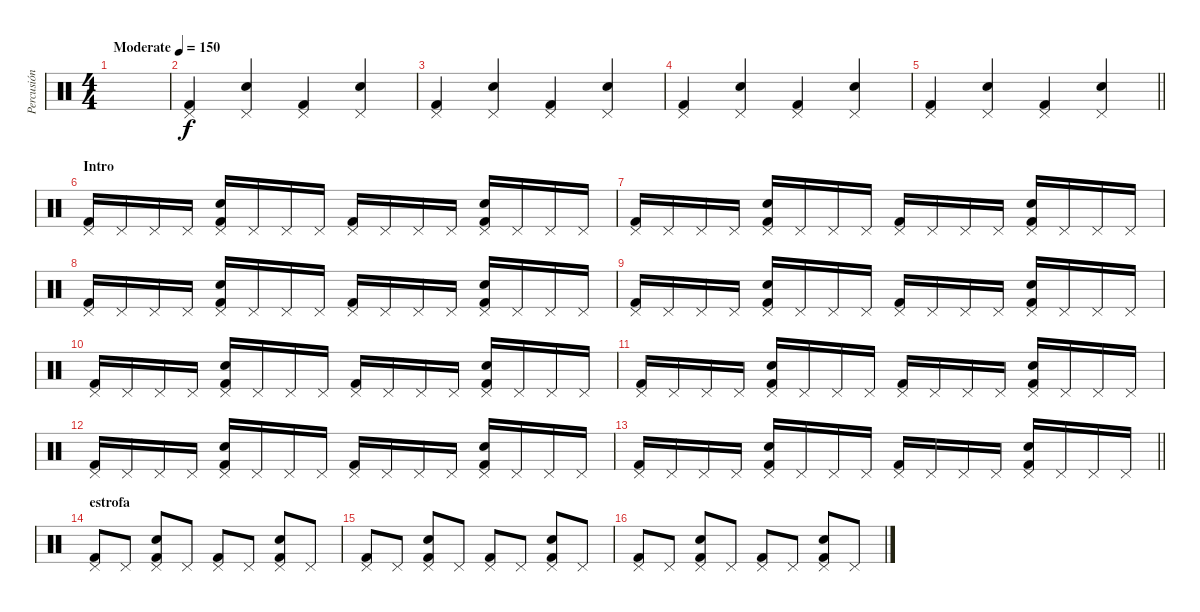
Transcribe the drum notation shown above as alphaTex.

\track ("Percusión" "Percusión") {instrument percussion}
\staff {score}
\articulation defaults
\ts (4 4)
\tempo (150 "Moderate")
\clef neutral
\ks c
|
("Pedal Hi-Hat (hit)" "Kick (hit) 2").4 ("Pedal Hi-Hat (hit)" "Electric Snare (hit)").4 ("Pedal Hi-Hat (hit)" "Kick (hit) 2").4 ("Pedal Hi-Hat (hit)" "Electric Snare (hit)").4 |
("Pedal Hi-Hat (hit)" "Kick (hit) 2").4 ("Pedal Hi-Hat (hit)" "Electric Snare (hit)").4 ("Pedal Hi-Hat (hit)" "Kick (hit) 2").4 ("Pedal Hi-Hat (hit)" "Electric Snare (hit)").4 |
("Pedal Hi-Hat (hit)" "Kick (hit) 2").4 ("Pedal Hi-Hat (hit)" "Electric Snare (hit)").4 ("Pedal Hi-Hat (hit)" "Kick (hit) 2").4 ("Pedal Hi-Hat (hit)" "Electric Snare (hit)").4 |
\barLineRight lightlight
("Pedal Hi-Hat (hit)" "Kick (hit) 2").4 ("Pedal Hi-Hat (hit)" "Electric Snare (hit)").4 ("Pedal Hi-Hat (hit)" "Kick (hit) 2").4 ("Pedal Hi-Hat (hit)" "Electric Snare (hit)").4 |
\section ("" "Intro")
("Pedal Hi-Hat (hit)" "Kick (hit) 2").16 "Pedal Hi-Hat (hit)".16 "Pedal Hi-Hat (hit)".16 "Pedal Hi-Hat (hit)".16 ("Pedal Hi-Hat (hit)" "Electric Snare (hit)" "Kick (hit) 2").16 "Pedal Hi-Hat (hit)".16 "Pedal Hi-Hat (hit)".16 "Pedal Hi-Hat (hit)".16 ("Pedal Hi-Hat (hit)" "Kick (hit) 2").16 "Pedal Hi-Hat (hit)".16 "Pedal Hi-Hat (hit)".16 "Pedal Hi-Hat (hit)".16 ("Pedal Hi-Hat (hit)" "Electric Snare (hit)" "Kick (hit) 2").16 "Pedal Hi-Hat (hit)".16 "Pedal Hi-Hat (hit)".16 "Pedal Hi-Hat (hit)".16 |
("Pedal Hi-Hat (hit)" "Kick (hit) 2").16 "Pedal Hi-Hat (hit)".16 "Pedal Hi-Hat (hit)".16 "Pedal Hi-Hat (hit)".16 ("Pedal Hi-Hat (hit)" "Electric Snare (hit)" "Kick (hit) 2").16 "Pedal Hi-Hat (hit)".16 "Pedal Hi-Hat (hit)".16 "Pedal Hi-Hat (hit)".16 ("Pedal Hi-Hat (hit)" "Kick (hit) 2").16 "Pedal Hi-Hat (hit)".16 "Pedal Hi-Hat (hit)".16 "Pedal Hi-Hat (hit)".16 ("Pedal Hi-Hat (hit)" "Electric Snare (hit)" "Kick (hit) 2").16 "Pedal Hi-Hat (hit)".16 "Pedal Hi-Hat (hit)".16 "Pedal Hi-Hat (hit)".16 |
("Pedal Hi-Hat (hit)" "Kick (hit) 2").16 "Pedal Hi-Hat (hit)".16 "Pedal Hi-Hat (hit)".16 "Pedal Hi-Hat (hit)".16 ("Pedal Hi-Hat (hit)" "Electric Snare (hit)" "Kick (hit) 2").16 "Pedal Hi-Hat (hit)".16 "Pedal Hi-Hat (hit)".16 "Pedal Hi-Hat (hit)".16 ("Pedal Hi-Hat (hit)" "Kick (hit) 2").16 "Pedal Hi-Hat (hit)".16 "Pedal Hi-Hat (hit)".16 "Pedal Hi-Hat (hit)".16 ("Pedal Hi-Hat (hit)" "Electric Snare (hit)" "Kick (hit) 2").16 "Pedal Hi-Hat (hit)".16 "Pedal Hi-Hat (hit)".16 "Pedal Hi-Hat (hit)".16 |
("Pedal Hi-Hat (hit)" "Kick (hit) 2").16 "Pedal Hi-Hat (hit)".16 "Pedal Hi-Hat (hit)".16 "Pedal Hi-Hat (hit)".16 ("Pedal Hi-Hat (hit)" "Electric Snare (hit)" "Kick (hit) 2").16 "Pedal Hi-Hat (hit)".16 "Pedal Hi-Hat (hit)".16 "Pedal Hi-Hat (hit)".16 ("Pedal Hi-Hat (hit)" "Kick (hit) 2").16 "Pedal Hi-Hat (hit)".16 "Pedal Hi-Hat (hit)".16 "Pedal Hi-Hat (hit)".16 ("Pedal Hi-Hat (hit)" "Electric Snare (hit)" "Kick (hit) 2").16 "Pedal Hi-Hat (hit)".16 "Pedal Hi-Hat (hit)".16 "Pedal Hi-Hat (hit)".16 |
("Pedal Hi-Hat (hit)" "Kick (hit) 2").16 "Pedal Hi-Hat (hit)".16 "Pedal Hi-Hat (hit)".16 "Pedal Hi-Hat (hit)".16 ("Pedal Hi-Hat (hit)" "Electric Snare (hit)" "Kick (hit) 2").16 "Pedal Hi-Hat (hit)".16 "Pedal Hi-Hat (hit)".16 "Pedal Hi-Hat (hit)".16 ("Pedal Hi-Hat (hit)" "Kick (hit) 2").16 "Pedal Hi-Hat (hit)".16 "Pedal Hi-Hat (hit)".16 "Pedal Hi-Hat (hit)".16 ("Pedal Hi-Hat (hit)" "Electric Snare (hit)" "Kick (hit) 2").16 "Pedal Hi-Hat (hit)".16 "Pedal Hi-Hat (hit)".16 "Pedal Hi-Hat (hit)".16 |
("Pedal Hi-Hat (hit)" "Kick (hit) 2").16 "Pedal Hi-Hat (hit)".16 "Pedal Hi-Hat (hit)".16 "Pedal Hi-Hat (hit)".16 ("Pedal Hi-Hat (hit)" "Electric Snare (hit)" "Kick (hit) 2").16 "Pedal Hi-Hat (hit)".16 "Pedal Hi-Hat (hit)".16 "Pedal Hi-Hat (hit)".16 ("Pedal Hi-Hat (hit)" "Kick (hit) 2").16 "Pedal Hi-Hat (hit)".16 "Pedal Hi-Hat (hit)".16 "Pedal Hi-Hat (hit)".16 ("Pedal Hi-Hat (hit)" "Electric Snare (hit)" "Kick (hit) 2").16 "Pedal Hi-Hat (hit)".16 "Pedal Hi-Hat (hit)".16 "Pedal Hi-Hat (hit)".16 |
("Pedal Hi-Hat (hit)" "Kick (hit) 2").16 "Pedal Hi-Hat (hit)".16 "Pedal Hi-Hat (hit)".16 "Pedal Hi-Hat (hit)".16 ("Pedal Hi-Hat (hit)" "Electric Snare (hit)" "Kick (hit) 2").16 "Pedal Hi-Hat (hit)".16 "Pedal Hi-Hat (hit)".16 "Pedal Hi-Hat (hit)".16 ("Pedal Hi-Hat (hit)" "Kick (hit) 2").16 "Pedal Hi-Hat (hit)".16 "Pedal Hi-Hat (hit)".16 "Pedal Hi-Hat (hit)".16 ("Pedal Hi-Hat (hit)" "Electric Snare (hit)" "Kick (hit) 2").16 "Pedal Hi-Hat (hit)".16 "Pedal Hi-Hat (hit)".16 "Pedal Hi-Hat (hit)".16 |
\barLineRight lightlight
("Pedal Hi-Hat (hit)" "Kick (hit) 2").16 "Pedal Hi-Hat (hit)".16 "Pedal Hi-Hat (hit)".16 "Pedal Hi-Hat (hit)".16 ("Pedal Hi-Hat (hit)" "Electric Snare (hit)" "Kick (hit) 2").16 "Pedal Hi-Hat (hit)".16 "Pedal Hi-Hat (hit)".16 "Pedal Hi-Hat (hit)".16 ("Pedal Hi-Hat (hit)" "Kick (hit) 2").16 "Pedal Hi-Hat (hit)".16 "Pedal Hi-Hat (hit)".16 "Pedal Hi-Hat (hit)".16 ("Pedal Hi-Hat (hit)" "Electric Snare (hit)" "Kick (hit) 2").16 "Pedal Hi-Hat (hit)".16 "Pedal Hi-Hat (hit)".16 "Pedal Hi-Hat (hit)".16 |
\section ("" "estrofa")
("Pedal Hi-Hat (hit)" "Kick (hit) 2").8 "Pedal Hi-Hat (hit)".8 ("Electric Snare (hit)" "Pedal Hi-Hat (hit)" "Kick (hit) 2").8 "Pedal Hi-Hat (hit)".8 ("Pedal Hi-Hat (hit)" "Kick (hit) 2").8 "Pedal Hi-Hat (hit)".8 ("Electric Snare (hit)" "Pedal Hi-Hat (hit)" "Kick (hit) 2").8 "Pedal Hi-Hat (hit)".8 |
("Pedal Hi-Hat (hit)" "Kick (hit) 2").8 "Pedal Hi-Hat (hit)".8 ("Electric Snare (hit)" "Pedal Hi-Hat (hit)" "Kick (hit) 2").8 "Pedal Hi-Hat (hit)".8 ("Pedal Hi-Hat (hit)" "Kick (hit) 2").8 "Pedal Hi-Hat (hit)".8 ("Electric Snare (hit)" "Pedal Hi-Hat (hit)" "Kick (hit) 2").8 "Pedal Hi-Hat (hit)".8 |
("Pedal Hi-Hat (hit)" "Kick (hit) 2").8 "Pedal Hi-Hat (hit)".8 ("Electric Snare (hit)" "Pedal Hi-Hat (hit)" "Kick (hit) 2").8 "Pedal Hi-Hat (hit)".8 ("Pedal Hi-Hat (hit)" "Kick (hit) 2").8 "Pedal Hi-Hat (hit)".8 ("Electric Snare (hit)" "Pedal Hi-Hat (hit)" "Kick (hit) 2").8 "Pedal Hi-Hat (hit)".8
